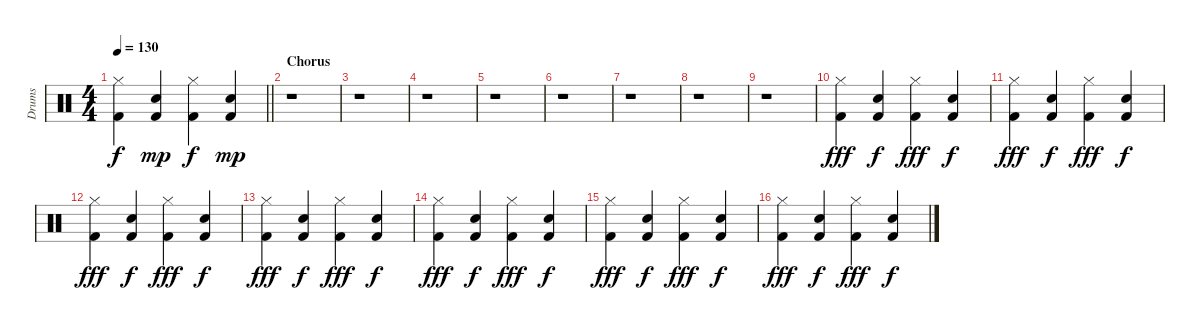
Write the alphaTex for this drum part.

\track ("Drums" "Drums") {instrument percussion}
\staff {score}
\articulation defaults
\ts (4 4)
\tempo 130
\clef neutral
\barLineRight lightlight
\ks c
("Kick (hit) 2" "Hi-Hat (closed)").4{dy f} ("Kick (hit) 2" "Snare (hit) 2").4{dy mp} ("Kick (hit) 2" "Hi-Hat (closed)").4{dy f} ("Kick (hit) 2" "Snare (hit) 2").4{dy mp} |
\section ("" "Chorus")
r.1 |
r.1 |
r.1 |
r.1 |
r.1 |
r.1 |
r.1 |
r.1 |
("Kick (hit) 2" "Hi-Hat (closed)").4{dy fff} ("Kick (hit) 2" "Snare (hit) 2").4{dy f} ("Kick (hit) 2" "Hi-Hat (closed)").4{dy fff} ("Kick (hit) 2" "Snare (hit) 2").4{dy f} |
("Kick (hit) 2" "Hi-Hat (closed)").4{dy fff} ("Kick (hit) 2" "Snare (hit) 2").4{dy f} ("Kick (hit) 2" "Hi-Hat (closed)").4{dy fff} ("Kick (hit) 2" "Snare (hit) 2").4{dy f} |
("Kick (hit) 2" "Hi-Hat (closed)").4{dy fff} ("Kick (hit) 2" "Snare (hit) 2").4{dy f} ("Kick (hit) 2" "Hi-Hat (closed)").4{dy fff} ("Kick (hit) 2" "Snare (hit) 2").4{dy f} |
("Kick (hit) 2" "Hi-Hat (closed)").4{dy fff} ("Kick (hit) 2" "Snare (hit) 2").4{dy f} ("Kick (hit) 2" "Hi-Hat (closed)").4{dy fff} ("Kick (hit) 2" "Snare (hit) 2").4{dy f} |
("Kick (hit) 2" "Hi-Hat (closed)").4{dy fff} ("Kick (hit) 2" "Snare (hit) 2").4{dy f} ("Kick (hit) 2" "Hi-Hat (closed)").4{dy fff} ("Kick (hit) 2" "Snare (hit) 2").4{dy f} |
("Kick (hit) 2" "Hi-Hat (closed)").4{dy fff} ("Kick (hit) 2" "Snare (hit) 2").4{dy f} ("Kick (hit) 2" "Hi-Hat (closed)").4{dy fff} ("Kick (hit) 2" "Snare (hit) 2").4{dy f} |
("Kick (hit) 2" "Hi-Hat (closed)").4{dy fff} ("Kick (hit) 2" "Snare (hit) 2").4{dy f} ("Kick (hit) 2" "Hi-Hat (closed)").4{dy fff} ("Kick (hit) 2" "Snare (hit) 2").4{dy f}
